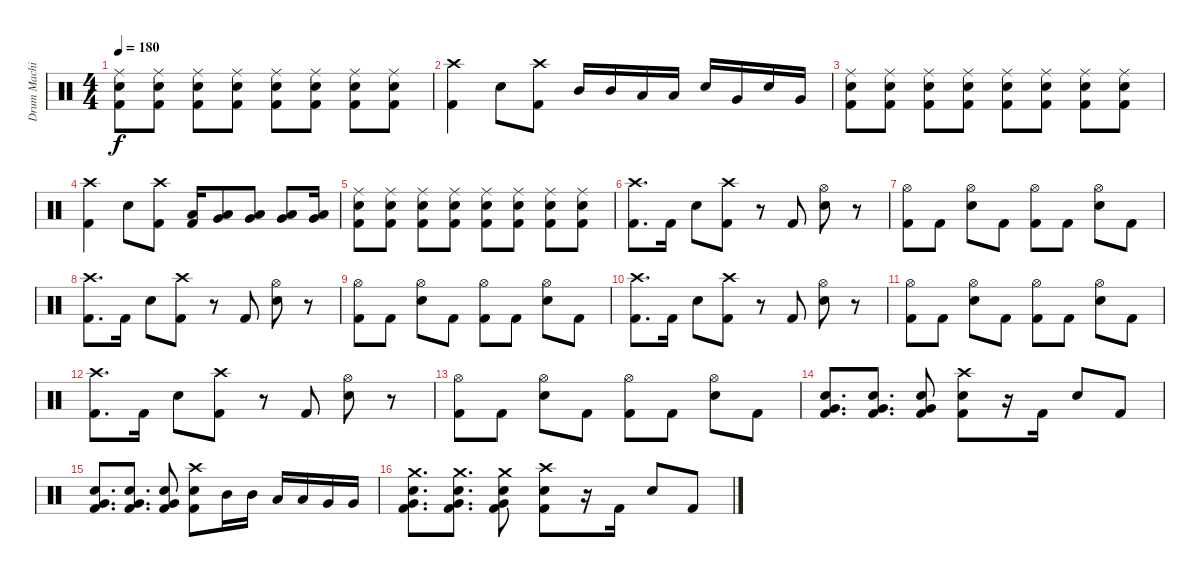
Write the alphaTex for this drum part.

\track ("Drum Machine" "Drum Machi") {instrument percussion}
\staff {score}
\articulation defaults
\ts (4 4)
\tempo 180
\clef neutral
\ks c
("Ride (middle)" "Snare (hit) 2" "Kick (hit) 2").8{dy f} ("Ride (middle)" "Snare (hit) 2" "Kick (hit) 2").8 ("Ride (middle)" "Snare (hit) 2" "Kick (hit) 2").8 ("Ride (middle)" "Snare (hit) 2" "Kick (hit) 2").8 ("Ride (middle)" "Snare (hit) 2" "Kick (hit) 2").8 ("Ride (middle)" "Snare (hit) 2" "Kick (hit) 2").8 ("Ride (middle)" "Snare (hit) 2" "Kick (hit) 2").8 ("Ride (middle)" "Snare (hit) 2" "Kick (hit) 2").8 |
("Crash high (hit)" "Kick (hit) 2").4 "Snare (hit) 2".8 ("Crash high (hit)" "Kick (hit) 2").8 "Mid Tom (hit)".16 "Mid Tom (hit)".16 "Low Tom (hit)".16 "Low Tom (hit)".16 "Snare (hit) 2".16 "Very Low Tom (hit)".16 "Snare (hit) 2".16 "Very Low Tom (hit)".16 |
("Ride (middle)" "Snare (hit) 2" "Kick (hit) 2").8 ("Ride (middle)" "Snare (hit) 2" "Kick (hit) 2").8 ("Ride (middle)" "Snare (hit) 2" "Kick (hit) 2").8 ("Ride (middle)" "Snare (hit) 2" "Kick (hit) 2").8 ("Ride (middle)" "Snare (hit) 2" "Kick (hit) 2").8 ("Ride (middle)" "Snare (hit) 2" "Kick (hit) 2").8 ("Ride (middle)" "Snare (hit) 2" "Kick (hit) 2").8 ("Ride (middle)" "Snare (hit) 2" "Kick (hit) 2").8 |
("Crash high (hit)" "Kick (hit) 2").4 "Snare (hit) 2".8 ("Crash high (hit)" "Kick (hit) 2").8 ("Kick (hit) 2" "Low Tom (hit)").16 ("Very Low Tom (hit)" "Low Tom (hit)").8 ("Very Low Tom (hit)" "Low Tom (hit)").8 ("Very Low Tom (hit)" "Low Tom (hit)").8 ("Very Low Tom (hit)" "Low Tom (hit)").16 |
("Ride (middle)" "Snare (hit) 2" "Kick (hit) 2").8 ("Ride (middle)" "Snare (hit) 2" "Kick (hit) 2").8 ("Ride (middle)" "Snare (hit) 2" "Kick (hit) 2").8 ("Ride (middle)" "Snare (hit) 2" "Kick (hit) 2").8 ("Ride (middle)" "Snare (hit) 2" "Kick (hit) 2").8 ("Ride (middle)" "Snare (hit) 2" "Kick (hit) 2").8 ("Ride (middle)" "Snare (hit) 2" "Kick (hit) 2").8 ("Ride (middle)" "Snare (hit) 2" "Kick (hit) 2").8 |
("Crash high (hit)" "Kick (hit) 2").8{d} "Kick (hit) 2".16 "Snare (hit) 2".8 ("Crash high (hit)" "Kick (hit) 2").8 r.8 "Kick (hit) 2".8 ("Hi-Hat (open)" "Snare (hit) 2").8 r.8 |
("Hi-Hat (open)" "Kick (hit) 2").8 "Kick (hit) 2".8 ("Hi-Hat (open)" "Snare (hit) 2").8 "Kick (hit) 2".8 ("Hi-Hat (open)" "Kick (hit) 2").8 "Kick (hit) 2".8 ("Hi-Hat (open)" "Snare (hit) 2").8 "Kick (hit) 2".8 |
("Crash high (hit)" "Kick (hit) 2").8{d} "Kick (hit) 2".16 "Snare (hit) 2".8 ("Crash high (hit)" "Kick (hit) 2").8 r.8 "Kick (hit) 2".8 ("Hi-Hat (open)" "Snare (hit) 2").8 r.8 |
("Hi-Hat (open)" "Kick (hit) 2").8 "Kick (hit) 2".8 ("Hi-Hat (open)" "Snare (hit) 2").8 "Kick (hit) 2".8 ("Hi-Hat (open)" "Kick (hit) 2").8 "Kick (hit) 2".8 ("Hi-Hat (open)" "Snare (hit) 2").8 "Kick (hit) 2".8 |
("Crash high (hit)" "Kick (hit) 2").8{d} "Kick (hit) 2".16 "Snare (hit) 2".8 ("Crash high (hit)" "Kick (hit) 2").8 r.8 "Kick (hit) 2".8 ("Hi-Hat (open)" "Snare (hit) 2").8 r.8 |
("Hi-Hat (open)" "Kick (hit) 2").8 "Kick (hit) 2".8 ("Hi-Hat (open)" "Snare (hit) 2").8 "Kick (hit) 2".8 ("Hi-Hat (open)" "Kick (hit) 2").8 "Kick (hit) 2".8 ("Hi-Hat (open)" "Snare (hit) 2").8 "Kick (hit) 2".8 |
("Crash high (hit)" "Kick (hit) 2").8{d} "Kick (hit) 2".16 "Snare (hit) 2".8 ("Crash high (hit)" "Kick (hit) 2").8 r.8 "Kick (hit) 2".8 ("Hi-Hat (open)" "Snare (hit) 2").8 r.8 |
("Hi-Hat (open)" "Kick (hit) 2").8 "Kick (hit) 2".8 ("Hi-Hat (open)" "Snare (hit) 2").8 "Kick (hit) 2".8 ("Hi-Hat (open)" "Kick (hit) 2").8 "Kick (hit) 2".8 ("Hi-Hat (open)" "Snare (hit) 2").8 "Kick (hit) 2".8 |
("Very Low Tom (hit)" "Snare (hit) 2" "Kick (hit) 2").8{d} ("Very Low Tom (hit)" "Snare (hit) 2" "Kick (hit) 2").8{d} ("Very Low Tom (hit)" "Snare (hit) 2" "Kick (hit) 2").8 ("Crash high (hit)" "Snare (hit) 2" "Kick (hit) 2").8 r.16 "Kick (hit) 2".16 "Snare (hit) 2".8 "Kick (hit) 2".8 |
("Very Low Tom (hit)" "Snare (hit) 2" "Kick (hit) 2").8{d} ("Very Low Tom (hit)" "Snare (hit) 2" "Kick (hit) 2").8{d} ("Very Low Tom (hit)" "Snare (hit) 2" "Kick (hit) 2").8 ("Crash high (hit)" "Snare (hit) 2" "Kick (hit) 2").8 "Mid Tom (hit)".16 "Mid Tom (hit)".16 "Low Tom (hit)".16 "Low Tom (hit)".16 "Very Low Tom (hit)".16 "Very Low Tom (hit)".16 |
("Crash medium (hit)" "Very Low Tom (hit)" "Snare (hit) 2" "Kick (hit) 2").8{d} ("Crash medium (hit)" "Very Low Tom (hit)" "Snare (hit) 2" "Kick (hit) 2").8{d} ("Crash medium (hit)" "Very Low Tom (hit)" "Snare (hit) 2" "Kick (hit) 2").8 ("Crash high (hit)" "Snare (hit) 2" "Kick (hit) 2").8 r.16 "Kick (hit) 2".16 "Snare (hit) 2".8 "Kick (hit) 2".8
